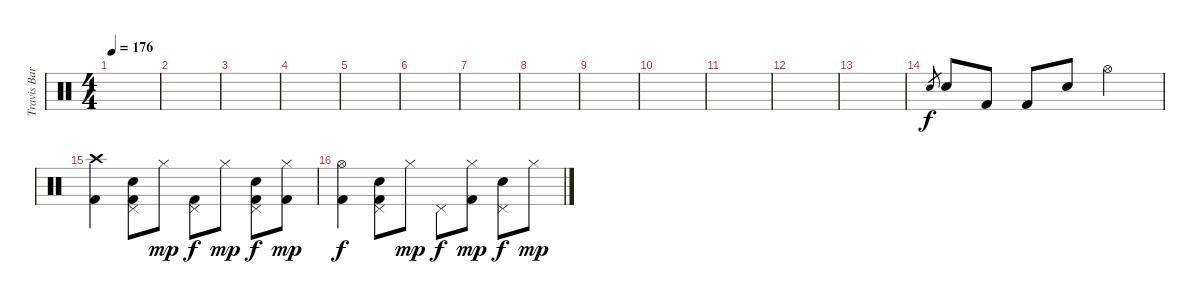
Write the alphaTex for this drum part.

\track ("Travis Barker - Drums" "Travis Bar") {instrument percussion}
\staff {score}
\articulation defaults
\ts (4 4)
\tempo 176
\clef neutral
\ks c
|
|
|
|
|
|
|
|
|
|
|
|
|
"Electric Snare (hit)".8{gr} "Electric Snare (hit)".8 "Kick (hit) 2".8 "Kick (hit) 2".8 "Electric Snare (hit)".8{dy f} "Hi-Hat (open)".2 |
("Crash high (hit)" "Kick (hit) 2").4 ("Pedal Hi-Hat (hit)" "Electric Snare (hit)" "Kick (hit) 2").8 "Hi-Hat (closed)".8{dy mp} ("Pedal Hi-Hat (hit)" "Kick (hit) 2").8{dy f} "Hi-Hat (closed)".8{dy mp} ("Pedal Hi-Hat (hit)" "Electric Snare (hit)" "Kick (hit) 2").8{dy f} ("Hi-Hat (closed)" "Kick (hit) 2").8{dy mp} |
("Hi-Hat (open)" "Kick (hit) 2").4{dy f} ("Pedal Hi-Hat (hit)" "Electric Snare (hit)" "Kick (hit) 2").8 "Hi-Hat (closed)".8{dy mp} "Pedal Hi-Hat (hit)".8{dy f} ("Hi-Hat (closed)" "Kick (hit) 2").8{dy mp} ("Pedal Hi-Hat (hit)" "Electric Snare (hit)").8{dy f} "Hi-Hat (closed)".8{dy mp}
